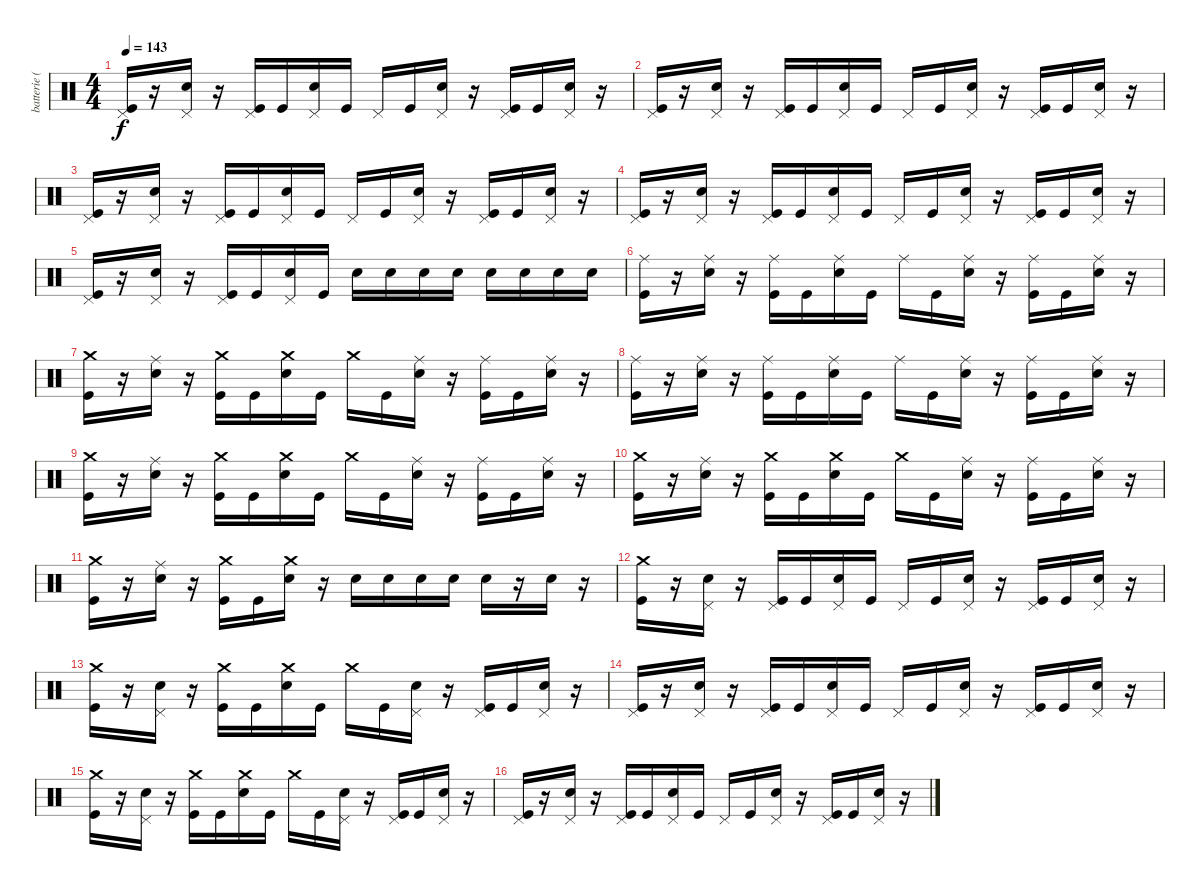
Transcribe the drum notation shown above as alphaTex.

\track ("batterie ( Vinnie ) " "batterie (") {instrument percussion}
\staff {score}
\articulation defaults
\ts (4 4)
\tempo 143
\clef neutral
\ks c
("Pedal Hi-Hat (hit)" "Kick (hit)").16{dy f} r.16 ("Pedal Hi-Hat (hit)" "Snare (hit) 2").16 r.16 ("Pedal Hi-Hat (hit)" "Kick (hit)").16 "Kick (hit)".16 ("Pedal Hi-Hat (hit)" "Snare (hit) 2").16 "Kick (hit)".16 "Pedal Hi-Hat (hit)".16 "Kick (hit)".16 ("Pedal Hi-Hat (hit)" "Snare (hit) 2").16 r.16 ("Pedal Hi-Hat (hit)" "Kick (hit)").16 "Kick (hit)".16 ("Pedal Hi-Hat (hit)" "Snare (hit) 2").16 r.16 |
("Pedal Hi-Hat (hit)" "Kick (hit)").16 r.16 ("Pedal Hi-Hat (hit)" "Snare (hit) 2").16 r.16 ("Pedal Hi-Hat (hit)" "Kick (hit)").16 "Kick (hit)".16 ("Pedal Hi-Hat (hit)" "Snare (hit) 2").16 "Kick (hit)".16 "Pedal Hi-Hat (hit)".16 "Kick (hit)".16 ("Pedal Hi-Hat (hit)" "Snare (hit) 2").16 r.16 ("Pedal Hi-Hat (hit)" "Kick (hit)").16 "Kick (hit)".16 ("Pedal Hi-Hat (hit)" "Snare (hit) 2").16 r.16 |
("Pedal Hi-Hat (hit)" "Kick (hit)").16 r.16 ("Pedal Hi-Hat (hit)" "Snare (hit) 2").16 r.16 ("Pedal Hi-Hat (hit)" "Kick (hit)").16 "Kick (hit)".16 ("Pedal Hi-Hat (hit)" "Snare (hit) 2").16 "Kick (hit)".16 "Pedal Hi-Hat (hit)".16 "Kick (hit)".16 ("Pedal Hi-Hat (hit)" "Snare (hit) 2").16 r.16 ("Pedal Hi-Hat (hit)" "Kick (hit)").16 "Kick (hit)".16 ("Pedal Hi-Hat (hit)" "Snare (hit) 2").16 r.16 |
("Pedal Hi-Hat (hit)" "Kick (hit)").16 r.16 ("Pedal Hi-Hat (hit)" "Snare (hit) 2").16 r.16 ("Pedal Hi-Hat (hit)" "Kick (hit)").16 "Kick (hit)".16 ("Pedal Hi-Hat (hit)" "Snare (hit) 2").16 "Kick (hit)".16 "Pedal Hi-Hat (hit)".16 "Kick (hit)".16 ("Pedal Hi-Hat (hit)" "Snare (hit) 2").16 r.16 ("Pedal Hi-Hat (hit)" "Kick (hit)").16 "Kick (hit)".16 ("Pedal Hi-Hat (hit)" "Snare (hit) 2").16 r.16 |
("Pedal Hi-Hat (hit)" "Kick (hit)").16 r.16 ("Pedal Hi-Hat (hit)" "Snare (hit) 2").16 r.16 ("Pedal Hi-Hat (hit)" "Kick (hit)").16 "Kick (hit)".16 ("Pedal Hi-Hat (hit)" "Snare (hit) 2").16 "Kick (hit)".16 "Snare (hit) 2".16 "Snare (hit) 2".16 "Snare (hit) 2".16 "Snare (hit) 2".16 "Snare (hit) 2".16 "Snare (hit) 2".16 "Snare (hit) 2".16 "Snare (hit) 2".16 |
("Ride (middle)" "Kick (hit)").16 r.16 ("Ride (middle)" "Snare (hit) 2").16 r.16 ("Ride (middle)" "Kick (hit)").16 "Kick (hit)".16 ("Ride (middle)" "Snare (hit) 2").16 "Kick (hit)".16 "Ride (middle)".16 "Kick (hit)".16 ("Ride (middle)" "Snare (hit) 2").16 r.16 ("Ride (middle)" "Kick (hit)").16 "Kick (hit)".16 ("Ride (middle)" "Snare (hit) 2").16 r.16 |
("Crash medium (hit)" "Kick (hit)").16 r.16 ("Ride (middle)" "Snare (hit) 2").16 r.16 ("Crash medium (hit)" "Kick (hit)").16 "Kick (hit)".16 ("Crash medium (hit)" "Snare (hit) 2").16 "Kick (hit)".16 "Crash medium (hit)".16 "Kick (hit)".16 ("Ride (middle)" "Snare (hit) 2").16 r.16 ("Ride (middle)" "Kick (hit)").16 "Kick (hit)".16 ("Ride (middle)" "Snare (hit) 2").16 r.16 |
("Ride (middle)" "Kick (hit)").16 r.16 ("Ride (middle)" "Snare (hit) 2").16 r.16 ("Ride (middle)" "Kick (hit)").16 "Kick (hit)".16 ("Ride (middle)" "Snare (hit) 2").16 "Kick (hit)".16 "Ride (middle)".16 "Kick (hit)".16 ("Ride (middle)" "Snare (hit) 2").16 r.16 ("Ride (middle)" "Kick (hit)").16 "Kick (hit)".16 ("Ride (middle)" "Snare (hit) 2").16 r.16 |
("Crash medium (hit)" "Kick (hit)").16 r.16 ("Ride (middle)" "Snare (hit) 2").16 r.16 ("Crash medium (hit)" "Kick (hit)").16 "Kick (hit)".16 ("Crash medium (hit)" "Snare (hit) 2").16 "Kick (hit)".16 "Crash medium (hit)".16 "Kick (hit)".16 ("Ride (middle)" "Snare (hit) 2").16 r.16 ("Ride (middle)" "Kick (hit)").16 "Kick (hit)".16 ("Ride (middle)" "Snare (hit) 2").16 r.16 |
("Crash medium (hit)" "Kick (hit)").16 r.16 ("Ride (middle)" "Snare (hit) 2").16 r.16 ("Crash medium (hit)" "Kick (hit)").16 "Kick (hit)".16 ("Crash medium (hit)" "Snare (hit) 2").16 "Kick (hit)".16 "Crash medium (hit)".16 "Kick (hit)".16 ("Ride (middle)" "Snare (hit) 2").16 r.16 ("Ride (middle)" "Kick (hit)").16 "Kick (hit)".16 ("Ride (middle)" "Snare (hit) 2").16 r.16 |
("Crash medium (hit)" "Kick (hit)").16 r.16 ("Ride (middle)" "Snare (hit) 2").16 r.16 ("Crash medium (hit)" "Kick (hit)").16 "Kick (hit)".16 ("Crash medium (hit)" "Snare (hit) 2").16 r.16 "Snare (hit) 2".16 "Snare (hit) 2".16 "Snare (hit) 2".16 "Snare (hit) 2".16 "Snare (hit) 2".16 r.16 "Snare (hit) 2".16 r.16 |
("Crash medium (hit)" "Kick (hit)").16 r.16 ("Pedal Hi-Hat (hit)" "Snare (hit) 2").16 r.16 ("Pedal Hi-Hat (hit)" "Kick (hit)").16 "Kick (hit)".16 ("Pedal Hi-Hat (hit)" "Snare (hit) 2").16 "Kick (hit)".16 "Pedal Hi-Hat (hit)".16 "Kick (hit)".16 ("Pedal Hi-Hat (hit)" "Snare (hit) 2").16 r.16 ("Pedal Hi-Hat (hit)" "Kick (hit)").16 "Kick (hit)".16 ("Pedal Hi-Hat (hit)" "Snare (hit) 2").16 r.16 |
("Crash medium (hit)" "Kick (hit)").16 r.16 ("Pedal Hi-Hat (hit)" "Snare (hit) 2").16 r.16 ("Crash medium (hit)" "Kick (hit)").16 "Kick (hit)".16 ("Crash medium (hit)" "Snare (hit) 2").16 "Kick (hit)".16 "Crash medium (hit)".16 "Kick (hit)".16 ("Pedal Hi-Hat (hit)" "Snare (hit) 2").16 r.16 ("Pedal Hi-Hat (hit)" "Kick (hit)").16 "Kick (hit)".16 ("Pedal Hi-Hat (hit)" "Snare (hit) 2").16 r.16 |
("Pedal Hi-Hat (hit)" "Kick (hit)").16 r.16 ("Pedal Hi-Hat (hit)" "Snare (hit) 2").16 r.16 ("Pedal Hi-Hat (hit)" "Kick (hit)").16 "Kick (hit)".16 ("Pedal Hi-Hat (hit)" "Snare (hit) 2").16 "Kick (hit)".16 "Pedal Hi-Hat (hit)".16 "Kick (hit)".16 ("Pedal Hi-Hat (hit)" "Snare (hit) 2").16 r.16 ("Pedal Hi-Hat (hit)" "Kick (hit)").16 "Kick (hit)".16 ("Pedal Hi-Hat (hit)" "Snare (hit) 2").16 r.16 |
("Crash medium (hit)" "Kick (hit)").16 r.16 ("Pedal Hi-Hat (hit)" "Snare (hit) 2").16 r.16 ("Crash medium (hit)" "Kick (hit)").16 "Kick (hit)".16 ("Crash medium (hit)" "Snare (hit) 2").16 "Kick (hit)".16 "Crash medium (hit)".16 "Kick (hit)".16 ("Pedal Hi-Hat (hit)" "Snare (hit) 2").16 r.16 ("Pedal Hi-Hat (hit)" "Kick (hit)").16 "Kick (hit)".16 ("Pedal Hi-Hat (hit)" "Snare (hit) 2").16 r.16 |
("Pedal Hi-Hat (hit)" "Kick (hit)").16 r.16 ("Pedal Hi-Hat (hit)" "Snare (hit) 2").16 r.16 ("Pedal Hi-Hat (hit)" "Kick (hit)").16 "Kick (hit)".16 ("Pedal Hi-Hat (hit)" "Snare (hit) 2").16 "Kick (hit)".16 "Pedal Hi-Hat (hit)".16 "Kick (hit)".16 ("Pedal Hi-Hat (hit)" "Snare (hit) 2").16 r.16 ("Pedal Hi-Hat (hit)" "Kick (hit)").16 "Kick (hit)".16 ("Pedal Hi-Hat (hit)" "Snare (hit) 2").16 r.16
